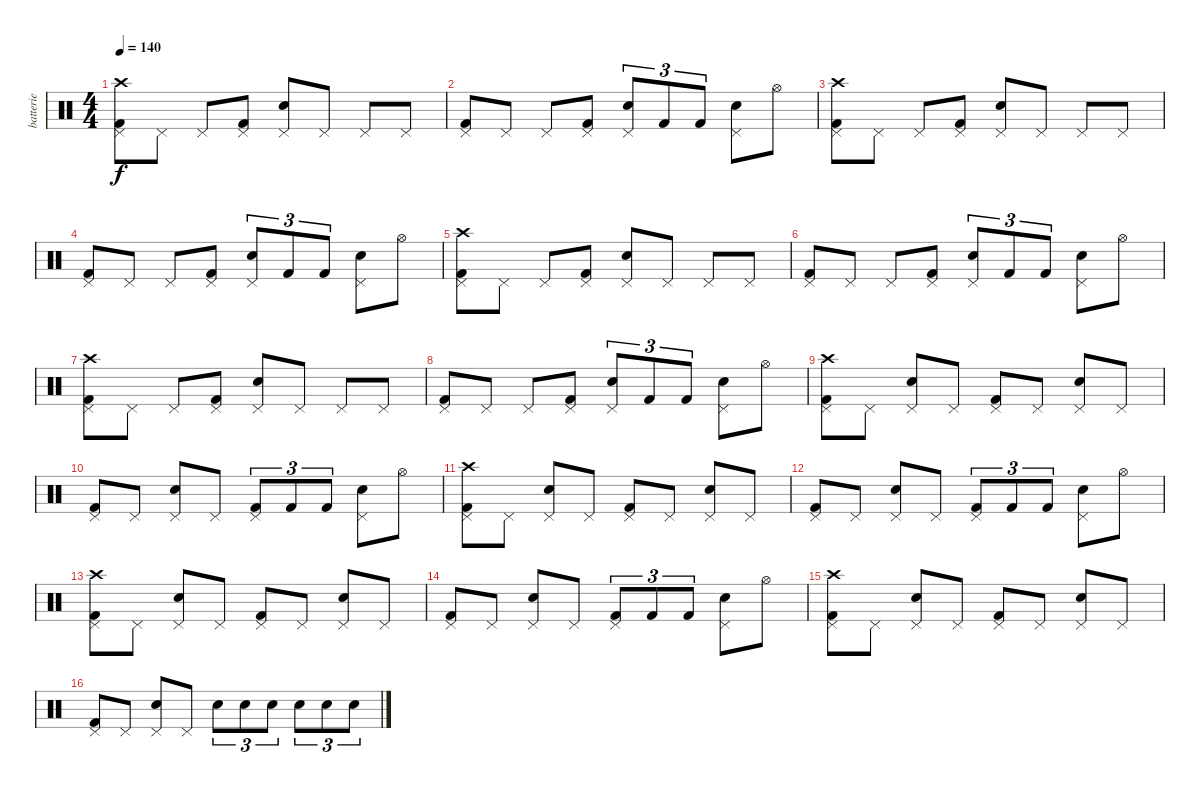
\track ("batterie" "batterie") {instrument percussion}
\staff {score}
\articulation defaults
\ts (4 4)
\tempo 140
\clef neutral
\ks c
("Crash high (hit)" "Kick (hit) 2" "Pedal Hi-Hat (hit)").8{dy f} "Pedal Hi-Hat (hit)".8 "Pedal Hi-Hat (hit)".8 ("Kick (hit) 2" "Pedal Hi-Hat (hit)").8 ("Snare (hit) 2" "Pedal Hi-Hat (hit)").8 "Pedal Hi-Hat (hit)".8 "Pedal Hi-Hat (hit)".8 "Pedal Hi-Hat (hit)".8 |
("Kick (hit) 2" "Pedal Hi-Hat (hit)").8 "Pedal Hi-Hat (hit)".8 "Pedal Hi-Hat (hit)".8 ("Kick (hit) 2" "Pedal Hi-Hat (hit)").8 ("Snare (hit) 2" "Pedal Hi-Hat (hit)").8{tu (3 2)} "Kick (hit) 2".8{tu (3 2)} "Kick (hit) 2".8{tu (3 2)} ("Snare (hit) 2" "Pedal Hi-Hat (hit)").8 "Hi-Hat (open)".8 |
("Crash high (hit)" "Kick (hit) 2" "Pedal Hi-Hat (hit)").8 "Pedal Hi-Hat (hit)".8 "Pedal Hi-Hat (hit)".8 ("Kick (hit) 2" "Pedal Hi-Hat (hit)").8 ("Snare (hit) 2" "Pedal Hi-Hat (hit)").8 "Pedal Hi-Hat (hit)".8 "Pedal Hi-Hat (hit)".8 "Pedal Hi-Hat (hit)".8 |
("Kick (hit) 2" "Pedal Hi-Hat (hit)").8 "Pedal Hi-Hat (hit)".8 "Pedal Hi-Hat (hit)".8 ("Kick (hit) 2" "Pedal Hi-Hat (hit)").8 ("Snare (hit) 2" "Pedal Hi-Hat (hit)").8{tu (3 2)} "Kick (hit) 2".8{tu (3 2)} "Kick (hit) 2".8{tu (3 2)} ("Snare (hit) 2" "Pedal Hi-Hat (hit)").8 "Hi-Hat (open)".8 |
("Crash high (hit)" "Kick (hit) 2" "Pedal Hi-Hat (hit)").8 "Pedal Hi-Hat (hit)".8 "Pedal Hi-Hat (hit)".8 ("Kick (hit) 2" "Pedal Hi-Hat (hit)").8 ("Snare (hit) 2" "Pedal Hi-Hat (hit)").8 "Pedal Hi-Hat (hit)".8 "Pedal Hi-Hat (hit)".8 "Pedal Hi-Hat (hit)".8 |
("Kick (hit) 2" "Pedal Hi-Hat (hit)").8 "Pedal Hi-Hat (hit)".8 "Pedal Hi-Hat (hit)".8 ("Kick (hit) 2" "Pedal Hi-Hat (hit)").8 ("Snare (hit) 2" "Pedal Hi-Hat (hit)").8{tu (3 2)} "Kick (hit) 2".8{tu (3 2)} "Kick (hit) 2".8{tu (3 2)} ("Snare (hit) 2" "Pedal Hi-Hat (hit)").8 "Hi-Hat (open)".8 |
("Crash high (hit)" "Kick (hit) 2" "Pedal Hi-Hat (hit)").8 "Pedal Hi-Hat (hit)".8 "Pedal Hi-Hat (hit)".8 ("Kick (hit) 2" "Pedal Hi-Hat (hit)").8 ("Snare (hit) 2" "Pedal Hi-Hat (hit)").8 "Pedal Hi-Hat (hit)".8 "Pedal Hi-Hat (hit)".8 "Pedal Hi-Hat (hit)".8 |
("Kick (hit) 2" "Pedal Hi-Hat (hit)").8 "Pedal Hi-Hat (hit)".8 "Pedal Hi-Hat (hit)".8 ("Kick (hit) 2" "Pedal Hi-Hat (hit)").8 ("Snare (hit) 2" "Pedal Hi-Hat (hit)").8{tu (3 2)} "Kick (hit) 2".8{tu (3 2)} "Kick (hit) 2".8{tu (3 2)} ("Snare (hit) 2" "Pedal Hi-Hat (hit)").8 "Hi-Hat (open)".8 |
("Crash high (hit)" "Kick (hit) 2" "Pedal Hi-Hat (hit)").8 "Pedal Hi-Hat (hit)".8 ("Snare (hit) 2" "Pedal Hi-Hat (hit)").8 "Pedal Hi-Hat (hit)".8 ("Kick (hit) 2" "Pedal Hi-Hat (hit)").8 "Pedal Hi-Hat (hit)".8 ("Snare (hit) 2" "Pedal Hi-Hat (hit)").8 "Pedal Hi-Hat (hit)".8 |
("Kick (hit) 2" "Pedal Hi-Hat (hit)").8 "Pedal Hi-Hat (hit)".8 ("Snare (hit) 2" "Pedal Hi-Hat (hit)").8 "Pedal Hi-Hat (hit)".8 ("Kick (hit) 2" "Pedal Hi-Hat (hit)").8{tu (3 2)} "Kick (hit) 2".8{tu (3 2)} "Kick (hit) 2".8{tu (3 2)} ("Snare (hit) 2" "Pedal Hi-Hat (hit)").8 "Hi-Hat (open)".8 |
("Crash high (hit)" "Kick (hit) 2" "Pedal Hi-Hat (hit)").8 "Pedal Hi-Hat (hit)".8 ("Snare (hit) 2" "Pedal Hi-Hat (hit)").8 "Pedal Hi-Hat (hit)".8 ("Kick (hit) 2" "Pedal Hi-Hat (hit)").8 "Pedal Hi-Hat (hit)".8 ("Snare (hit) 2" "Pedal Hi-Hat (hit)").8 "Pedal Hi-Hat (hit)".8 |
("Kick (hit) 2" "Pedal Hi-Hat (hit)").8 "Pedal Hi-Hat (hit)".8 ("Snare (hit) 2" "Pedal Hi-Hat (hit)").8 "Pedal Hi-Hat (hit)".8 ("Kick (hit) 2" "Pedal Hi-Hat (hit)").8{tu (3 2)} "Kick (hit) 2".8{tu (3 2)} "Kick (hit) 2".8{tu (3 2)} ("Snare (hit) 2" "Pedal Hi-Hat (hit)").8 "Hi-Hat (open)".8 |
("Crash high (hit)" "Kick (hit) 2" "Pedal Hi-Hat (hit)").8 "Pedal Hi-Hat (hit)".8 ("Snare (hit) 2" "Pedal Hi-Hat (hit)").8 "Pedal Hi-Hat (hit)".8 ("Kick (hit) 2" "Pedal Hi-Hat (hit)").8 "Pedal Hi-Hat (hit)".8 ("Snare (hit) 2" "Pedal Hi-Hat (hit)").8 "Pedal Hi-Hat (hit)".8 |
("Kick (hit) 2" "Pedal Hi-Hat (hit)").8 "Pedal Hi-Hat (hit)".8 ("Snare (hit) 2" "Pedal Hi-Hat (hit)").8 "Pedal Hi-Hat (hit)".8 ("Kick (hit) 2" "Pedal Hi-Hat (hit)").8{tu (3 2)} "Kick (hit) 2".8{tu (3 2)} "Kick (hit) 2".8{tu (3 2)} ("Snare (hit) 2" "Pedal Hi-Hat (hit)").8 "Hi-Hat (open)".8 |
("Crash high (hit)" "Kick (hit) 2" "Pedal Hi-Hat (hit)").8 "Pedal Hi-Hat (hit)".8 ("Snare (hit) 2" "Pedal Hi-Hat (hit)").8 "Pedal Hi-Hat (hit)".8 ("Kick (hit) 2" "Pedal Hi-Hat (hit)").8 "Pedal Hi-Hat (hit)".8 ("Snare (hit) 2" "Pedal Hi-Hat (hit)").8 "Pedal Hi-Hat (hit)".8 |
("Kick (hit) 2" "Pedal Hi-Hat (hit)").8 "Pedal Hi-Hat (hit)".8 ("Snare (hit) 2" "Pedal Hi-Hat (hit)").8 "Pedal Hi-Hat (hit)".8 "Snare (hit) 2".8{tu (3 2)} "Snare (hit) 2".8{tu (3 2)} "Snare (hit) 2".8{tu (3 2)} "Snare (hit) 2".8{tu (3 2)} "Snare (hit) 2".8{tu (3 2)} "Snare (hit) 2".8{tu (3 2)}
